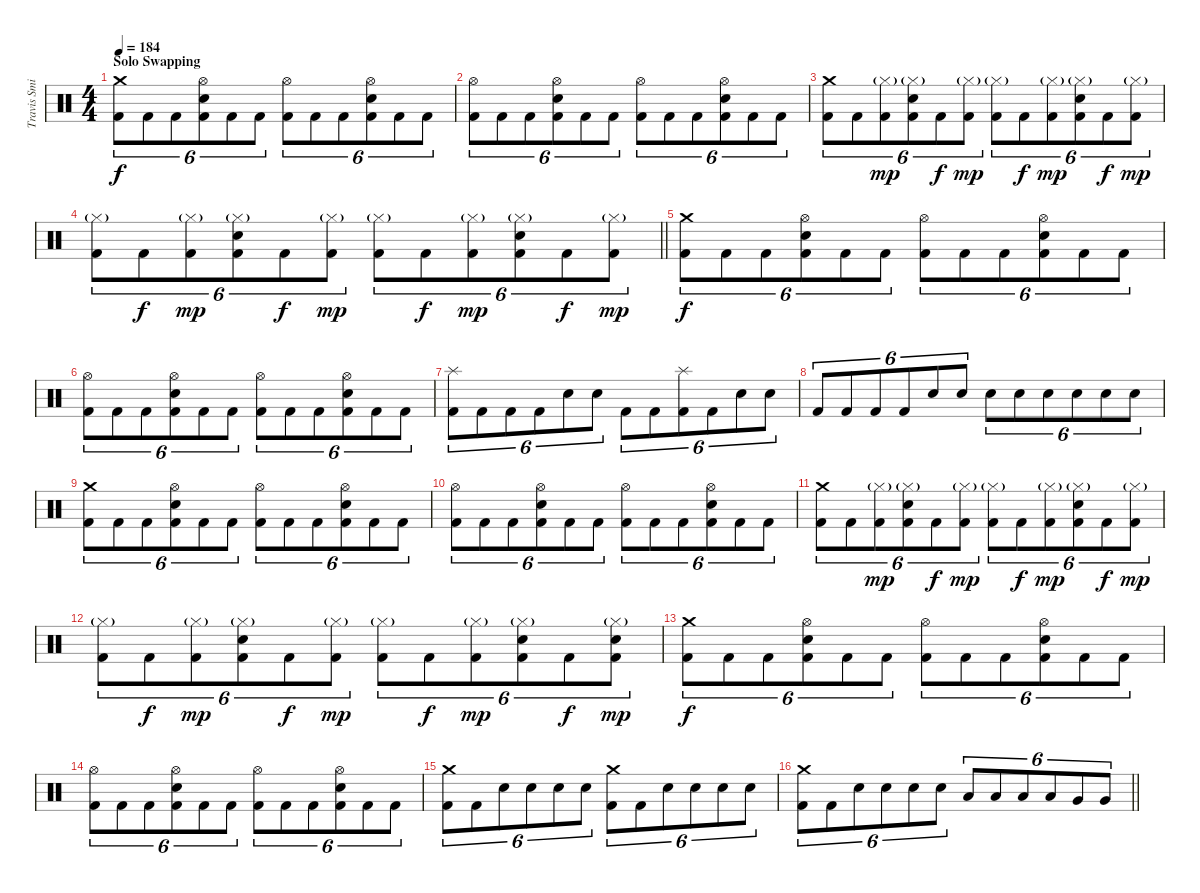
\track ("Travis Smith" "Travis Smi") {instrument percussion}
\staff {score}
\articulation defaults
\ts (4 4)
\section ("" "Solo Swapping")
\tempo 184
\clef neutral
\ks c
("Crash medium (hit)" "Kick (hit) 2").8{tu (6 4) dy f} "Kick (hit) 2".8{tu (6 4)} "Kick (hit) 2".8{tu (6 4)} ("Hi-Hat (open)" "Electric Snare (hit)" "Kick (hit) 2").8{tu (6 4)} "Kick (hit) 2".8{tu (6 4)} "Kick (hit) 2".8{tu (6 4)} ("Hi-Hat (open)" "Kick (hit) 2").8{tu (6 4)} "Kick (hit) 2".8{tu (6 4)} "Kick (hit) 2".8{tu (6 4)} ("Hi-Hat (open)" "Electric Snare (hit)" "Kick (hit) 2").8{tu (6 4)} "Kick (hit) 2".8{tu (6 4)} "Kick (hit) 2".8{tu (6 4)} |
("Hi-Hat (open)" "Kick (hit) 2").8{tu (6 4)} "Kick (hit) 2".8{tu (6 4)} "Kick (hit) 2".8{tu (6 4)} ("Hi-Hat (open)" "Electric Snare (hit)" "Kick (hit) 2").8{tu (6 4)} "Kick (hit) 2".8{tu (6 4)} "Kick (hit) 2".8{tu (6 4)} ("Hi-Hat (open)" "Kick (hit) 2").8{tu (6 4)} "Kick (hit) 2".8{tu (6 4)} "Kick (hit) 2".8{tu (6 4)} ("Hi-Hat (open)" "Electric Snare (hit)" "Kick (hit) 2").8{tu (6 4)} "Kick (hit) 2".8{tu (6 4)} "Kick (hit) 2".8{tu (6 4)} |
("Crash medium (hit)" "Kick (hit) 2").8{tu (6 4)} "Kick (hit) 2".8{tu (6 4)} ("Hi-Hat (closed)"{g} "Kick (hit) 2").8{tu (6 4) dy mp} ("Hi-Hat (closed)"{g} "Electric Snare (hit)" "Kick (hit) 2").8{tu (6 4)} "Kick (hit) 2".8{tu (6 4) dy f} ("Hi-Hat (closed)"{g} "Kick (hit) 2").8{tu (6 4) dy mp} ("Hi-Hat (closed)"{g} "Kick (hit) 2").8{tu (6 4)} "Kick (hit) 2".8{tu (6 4) dy f} ("Hi-Hat (closed)"{g} "Kick (hit) 2").8{tu (6 4) dy mp} ("Hi-Hat (closed)"{g} "Electric Snare (hit)" "Kick (hit) 2").8{tu (6 4)} "Kick (hit) 2".8{tu (6 4) dy f} ("Hi-Hat (closed)"{g} "Kick (hit) 2").8{tu (6 4) dy mp} |
\barLineRight lightlight
("Hi-Hat (closed)"{g} "Kick (hit) 2").8{tu (6 4)} "Kick (hit) 2".8{tu (6 4) dy f} ("Hi-Hat (closed)"{g} "Kick (hit) 2").8{tu (6 4) dy mp} ("Hi-Hat (closed)"{g} "Electric Snare (hit)" "Kick (hit) 2").8{tu (6 4)} "Kick (hit) 2".8{tu (6 4) dy f} ("Hi-Hat (closed)"{g} "Kick (hit) 2").8{tu (6 4) dy mp} ("Hi-Hat (closed)"{g} "Kick (hit) 2").8{tu (6 4)} "Kick (hit) 2".8{tu (6 4) dy f} ("Hi-Hat (closed)"{g} "Kick (hit) 2").8{tu (6 4) dy mp} ("Hi-Hat (closed)"{g} "Electric Snare (hit)" "Kick (hit) 2").8{tu (6 4)} "Kick (hit) 2".8{tu (6 4) dy f} ("Hi-Hat (closed)"{g} "Kick (hit) 2").8{tu (6 4) dy mp} |
\section ("" "")
("Crash medium (hit)" "Kick (hit) 2").8{tu (6 4) dy f} "Kick (hit) 2".8{tu (6 4)} "Kick (hit) 2".8{tu (6 4)} ("Hi-Hat (open)" "Electric Snare (hit)" "Kick (hit) 2").8{tu (6 4)} "Kick (hit) 2".8{tu (6 4)} "Kick (hit) 2".8{tu (6 4)} ("Hi-Hat (open)" "Kick (hit) 2").8{tu (6 4)} "Kick (hit) 2".8{tu (6 4)} "Kick (hit) 2".8{tu (6 4)} ("Hi-Hat (open)" "Electric Snare (hit)" "Kick (hit) 2").8{tu (6 4)} "Kick (hit) 2".8{tu (6 4)} "Kick (hit) 2".8{tu (6 4)} |
("Hi-Hat (open)" "Kick (hit) 2").8{tu (6 4)} "Kick (hit) 2".8{tu (6 4)} "Kick (hit) 2".8{tu (6 4)} ("Hi-Hat (open)" "Electric Snare (hit)" "Kick (hit) 2").8{tu (6 4)} "Kick (hit) 2".8{tu (6 4)} "Kick (hit) 2".8{tu (6 4)} ("Hi-Hat (open)" "Kick (hit) 2").8{tu (6 4)} "Kick (hit) 2".8{tu (6 4)} "Kick (hit) 2".8{tu (6 4)} ("Hi-Hat (open)" "Electric Snare (hit)" "Kick (hit) 2").8{tu (6 4)} "Kick (hit) 2".8{tu (6 4)} "Kick (hit) 2".8{tu (6 4)} |
("Splash (hit)" "Kick (hit) 2").8{tu (6 4)} "Kick (hit) 2".8{tu (6 4)} "Kick (hit) 2".8{tu (6 4)} "Kick (hit) 2".8{tu (6 4)} "Electric Snare (hit)".8{tu (6 4)} "Electric Snare (hit)".8{tu (6 4)} "Kick (hit) 2".8{tu (6 4)} "Kick (hit) 2".8{tu (6 4)} ("Splash (hit)" "Kick (hit) 2").8{tu (6 4)} "Kick (hit) 2".8{tu (6 4)} "Electric Snare (hit)".8{tu (6 4)} "Electric Snare (hit)".8{tu (6 4)} |
"Kick (hit) 2".8{tu (6 4)} "Kick (hit) 2".8{tu (6 4)} "Kick (hit) 2".8{tu (6 4)} "Kick (hit) 2".8{tu (6 4)} "Electric Snare (hit)".8{tu (6 4)} "Electric Snare (hit)".8{tu (6 4)} "Electric Snare (hit)".8{tu (6 4)} "Electric Snare (hit)".8{tu (6 4)} "Electric Snare (hit)".8{tu (6 4)} "Electric Snare (hit)".8{tu (6 4)} "Electric Snare (hit)".8{tu (6 4)} "Electric Snare (hit)".8{tu (6 4)} |
("Crash medium (hit)" "Kick (hit) 2").8{tu (6 4)} "Kick (hit) 2".8{tu (6 4)} "Kick (hit) 2".8{tu (6 4)} ("Hi-Hat (open)" "Electric Snare (hit)" "Kick (hit) 2").8{tu (6 4)} "Kick (hit) 2".8{tu (6 4)} "Kick (hit) 2".8{tu (6 4)} ("Hi-Hat (open)" "Kick (hit) 2").8{tu (6 4)} "Kick (hit) 2".8{tu (6 4)} "Kick (hit) 2".8{tu (6 4)} ("Hi-Hat (open)" "Electric Snare (hit)" "Kick (hit) 2").8{tu (6 4)} "Kick (hit) 2".8{tu (6 4)} "Kick (hit) 2".8{tu (6 4)} |
("Hi-Hat (open)" "Kick (hit) 2").8{tu (6 4)} "Kick (hit) 2".8{tu (6 4)} "Kick (hit) 2".8{tu (6 4)} ("Hi-Hat (open)" "Electric Snare (hit)" "Kick (hit) 2").8{tu (6 4)} "Kick (hit) 2".8{tu (6 4)} "Kick (hit) 2".8{tu (6 4)} ("Hi-Hat (open)" "Kick (hit) 2").8{tu (6 4)} "Kick (hit) 2".8{tu (6 4)} "Kick (hit) 2".8{tu (6 4)} ("Hi-Hat (open)" "Electric Snare (hit)" "Kick (hit) 2").8{tu (6 4)} "Kick (hit) 2".8{tu (6 4)} "Kick (hit) 2".8{tu (6 4)} |
("Crash medium (hit)" "Kick (hit) 2").8{tu (6 4)} "Kick (hit) 2".8{tu (6 4)} ("Hi-Hat (closed)"{g} "Kick (hit) 2").8{tu (6 4) dy mp} ("Hi-Hat (closed)"{g} "Electric Snare (hit)" "Kick (hit) 2").8{tu (6 4)} "Kick (hit) 2".8{tu (6 4) dy f} ("Hi-Hat (closed)"{g} "Kick (hit) 2").8{tu (6 4) dy mp} ("Hi-Hat (closed)"{g} "Kick (hit) 2").8{tu (6 4)} "Kick (hit) 2".8{tu (6 4) dy f} ("Hi-Hat (closed)"{g} "Kick (hit) 2").8{tu (6 4) dy mp} ("Hi-Hat (closed)"{g} "Electric Snare (hit)" "Kick (hit) 2").8{tu (6 4)} "Kick (hit) 2".8{tu (6 4) dy f} ("Hi-Hat (closed)"{g} "Kick (hit) 2").8{tu (6 4) dy mp} |
("Hi-Hat (closed)"{g} "Kick (hit) 2").8{tu (6 4)} "Kick (hit) 2".8{tu (6 4) dy f} ("Hi-Hat (closed)"{g} "Kick (hit) 2").8{tu (6 4) dy mp} ("Hi-Hat (closed)"{g} "Electric Snare (hit)" "Kick (hit) 2").8{tu (6 4)} "Kick (hit) 2".8{tu (6 4) dy f} ("Hi-Hat (closed)"{g} "Kick (hit) 2").8{tu (6 4) dy mp} ("Hi-Hat (closed)"{g} "Kick (hit) 2").8{tu (6 4)} "Kick (hit) 2".8{tu (6 4) dy f} ("Hi-Hat (closed)"{g} "Kick (hit) 2").8{tu (6 4) dy mp} ("Hi-Hat (closed)"{g} "Electric Snare (hit)" "Kick (hit) 2").8{tu (6 4)} "Kick (hit) 2".8{tu (6 4) dy f} ("Hi-Hat (closed)"{g} "Electric Snare (hit)" "Kick (hit) 2").8{tu (6 4) dy mp} |
("Crash medium (hit)" "Kick (hit) 2").8{tu (6 4) dy f} "Kick (hit) 2".8{tu (6 4)} "Kick (hit) 2".8{tu (6 4)} ("Hi-Hat (open)" "Electric Snare (hit)" "Kick (hit) 2").8{tu (6 4)} "Kick (hit) 2".8{tu (6 4)} "Kick (hit) 2".8{tu (6 4)} ("Hi-Hat (open)" "Kick (hit) 2").8{tu (6 4)} "Kick (hit) 2".8{tu (6 4)} "Kick (hit) 2".8{tu (6 4)} ("Hi-Hat (open)" "Electric Snare (hit)" "Kick (hit) 2").8{tu (6 4)} "Kick (hit) 2".8{tu (6 4)} "Kick (hit) 2".8{tu (6 4)} |
("Hi-Hat (open)" "Kick (hit) 2").8{tu (6 4)} "Kick (hit) 2".8{tu (6 4)} "Kick (hit) 2".8{tu (6 4)} ("Hi-Hat (open)" "Electric Snare (hit)" "Kick (hit) 2").8{tu (6 4)} "Kick (hit) 2".8{tu (6 4)} "Kick (hit) 2".8{tu (6 4)} ("Hi-Hat (open)" "Kick (hit) 2").8{tu (6 4)} "Kick (hit) 2".8{tu (6 4)} "Kick (hit) 2".8{tu (6 4)} ("Hi-Hat (open)" "Electric Snare (hit)" "Kick (hit) 2").8{tu (6 4)} "Kick (hit) 2".8{tu (6 4)} "Kick (hit) 2".8{tu (6 4)} |
("Crash medium (hit)" "Kick (hit) 2").8{tu (6 4)} "Kick (hit) 2".8{tu (6 4)} "Electric Snare (hit)".8{tu (6 4)} "Electric Snare (hit)".8{tu (6 4)} "Electric Snare (hit)".8{tu (6 4)} "Electric Snare (hit)".8{tu (6 4)} ("Crash medium (hit)" "Kick (hit) 2").8{tu (6 4)} "Kick (hit) 2".8{tu (6 4)} "Electric Snare (hit)".8{tu (6 4)} "Electric Snare (hit)".8{tu (6 4)} "Electric Snare (hit)".8{tu (6 4)} "Electric Snare (hit)".8{tu (6 4)} |
\barLineRight lightlight
("Crash medium (hit)" "Kick (hit) 2").8{tu (6 4)} "Kick (hit) 2".8{tu (6 4)} "Electric Snare (hit)".8{tu (6 4)} "Electric Snare (hit)".8{tu (6 4)} "Electric Snare (hit)".8{tu (6 4)} "Electric Snare (hit)".8{tu (6 4)} "Low Tom (hit)".8{tu (6 4)} "Low Tom (hit)".8{tu (6 4)} "Low Tom (hit)".8{tu (6 4)} "Low Tom (hit)".8{tu (6 4)} "Very Low Tom (hit)".8{tu (6 4)} "Very Low Tom (hit)".8{tu (6 4)}
